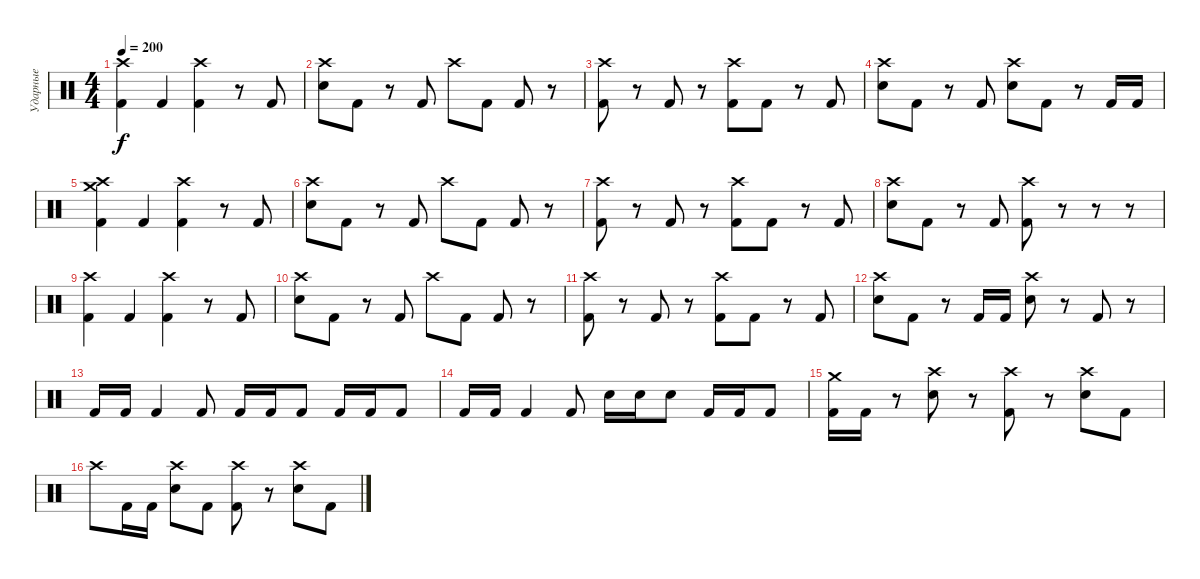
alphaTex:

\track ("Ударные" "Ударные") {instrument percussion}
\staff {score}
\articulation defaults
\ts (4 4)
\tempo 200
\clef neutral
\ks c
("Crash high (hit)" "Kick (hit) 2").4{dy f} "Kick (hit) 2".4 ("Crash high (hit)" "Kick (hit) 2").4 r.8 "Kick (hit) 2".8 |
("Crash high (hit)" "Snare (hit) 2").8 "Kick (hit) 2".8 r.8 "Kick (hit) 2".8 "Crash high (hit)".8 "Kick (hit) 2".8 "Kick (hit) 2".8 r.8 |
("Crash high (hit)" "Kick (hit) 2").8 r.8 "Kick (hit) 2".8 r.8 ("Crash high (hit)" "Kick (hit) 2").8 "Kick (hit) 2".8 r.8 "Kick (hit) 2".8 |
("Crash high (hit)" "Snare (hit) 2").8 "Kick (hit) 2".8 r.8 "Kick (hit) 2".8 ("Crash high (hit)" "Snare (hit) 2").8 "Kick (hit) 2".8 r.8 "Kick (hit) 2".16 "Kick (hit) 2".16 |
("Crash high (hit)" "Crash medium (hit)" "Kick (hit) 2").4 "Kick (hit) 2".4 ("Crash high (hit)" "Kick (hit) 2").4 r.8 "Kick (hit) 2".8 |
("Crash high (hit)" "Snare (hit) 2").8 "Kick (hit) 2".8 r.8 "Kick (hit) 2".8 "Crash high (hit)".8 "Kick (hit) 2".8 "Kick (hit) 2".8 r.8 |
("Crash high (hit)" "Kick (hit) 2").8 r.8 "Kick (hit) 2".8 r.8 ("Crash high (hit)" "Kick (hit) 2").8 "Kick (hit) 2".8 r.8 "Kick (hit) 2".8 |
("Crash high (hit)" "Snare (hit) 2").8 "Kick (hit) 2".8 r.8 "Kick (hit) 2".8 ("Crash high (hit)" "Kick (hit) 2").8 r.8 r.8 r.8 |
("Crash high (hit)" "Kick (hit) 2").4 "Kick (hit) 2".4 ("Crash high (hit)" "Kick (hit) 2").4 r.8 "Kick (hit) 2".8 |
("Crash high (hit)" "Snare (hit) 2").8 "Kick (hit) 2".8 r.8 "Kick (hit) 2".8 "Crash high (hit)".8 "Kick (hit) 2".8 "Kick (hit) 2".8 r.8 |
("Crash high (hit)" "Kick (hit) 2").8 r.8 "Kick (hit) 2".8 r.8 ("Crash high (hit)" "Kick (hit) 2").8 "Kick (hit) 2".8 r.8 "Kick (hit) 2".8 |
("Crash high (hit)" "Snare (hit) 2").8 "Kick (hit) 2".8 r.8 "Kick (hit) 2".16 "Kick (hit) 2".16 ("Crash high (hit)" "Snare (hit) 2").8 r.8 "Kick (hit) 2".8 r.8 |
"Kick (hit) 2".16 "Kick (hit) 2".16 "Kick (hit) 2".4 "Kick (hit) 2".8 "Kick (hit) 2".16 "Kick (hit) 2".16 "Kick (hit) 2".8 "Kick (hit) 2".16 "Kick (hit) 2".16 "Kick (hit) 2".8 |
"Kick (hit) 2".16 "Kick (hit) 2".16 "Kick (hit) 2".4 "Kick (hit) 2".8 "Snare (hit) 2".16 "Snare (hit) 2".16 "Snare (hit) 2".8 "Kick (hit) 2".16 "Kick (hit) 2".16 "Kick (hit) 2".8 |
("Crash medium (hit)" "Kick (hit) 2").16 "Kick (hit) 2".16 r.8 ("Crash high (hit)" "Snare (hit) 2").8 r.8 ("Crash high (hit)" "Kick (hit) 2").8 r.8 ("Crash high (hit)" "Snare (hit) 2").8 "Kick (hit) 2".8 |
"Crash high (hit)".8 "Kick (hit) 2".16 "Kick (hit) 2".16 ("Crash high (hit)" "Snare (hit) 2").8 "Kick (hit) 2".8 ("Crash high (hit)" "Kick (hit) 2").8 r.8 ("Crash high (hit)" "Snare (hit) 2").8 "Kick (hit) 2".8
